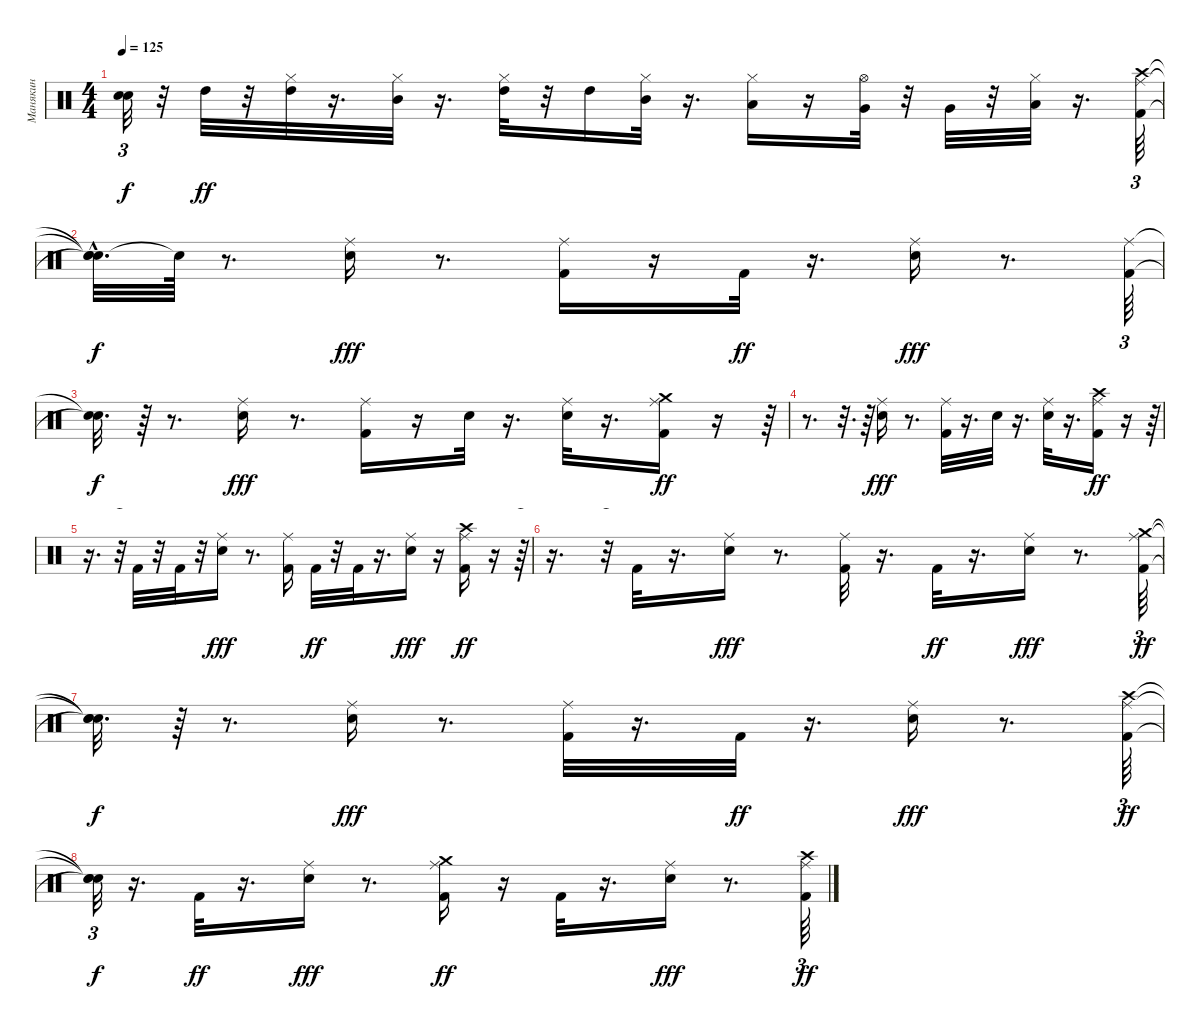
\track ("Манякин" "Манякин") {instrument percussion}
\staff {score}
\articulation defaults
\ts (4 4)
\tempo 125
\clef neutral
\ks c
("Snare (hit)"{t} "Snare (hit)"{t}).32{tu (3 2) dy f} r.32 "High Tom (hit)".32{dy ff} r.32 ("Hi-Hat (closed)" "High Tom (hit)").32 r.16{d} ("Hi-Hat (closed)" "Mid Tom (hit)").32 r.16{d} ("Hi-Hat (closed)" "High Tom (hit)").32 r.32 "High Tom (hit)".16 ("Hi-Hat (closed)" "Mid Tom (hit)").32 r.16{d} ("Hi-Hat (closed)" "Low Tom (hit)").16 r.16 ("Hi-Hat (open)" "Very Low Tom (hit)").32 r.32 "Very Low Tom (hit)".32 r.32 ("Hi-Hat (closed)" "Low Floor Tom (hit)").32 r.16{d} ("Kick (hit) 2" "Ride (middle)" "Crash high (hit)").64{tu (3 2)} |
("Snare (hit)"{t} "Snare (hit)"{hac t} "Snare (hit)"{t}).32{d dy f} "Snare (hit)"{t}.64 r.8{d} ("Snare (hit) 2" "Ride (middle)").16{dy fff} r.8{d} ("Kick (hit) 2" "Ride (middle)").16 r.16 "Kick (hit) 2".32{dy ff} r.16{d} ("Snare (hit) 2" "Ride (middle)").16{dy fff} r.8{d} ("Kick (hit) 2" "Ride (middle)").64{tu (3 2)} |
("Snare (hit)"{t} "Snare (hit)"{t}).32{d dy f} r.64 r.8{d} ("Snare (hit) 2" "Ride (middle)").16{dy fff} r.8{d} ("Kick (hit) 2" "Ride (middle)").16 r.16 "Snare (hit) 2".32 r.16{d} ("Snare (hit) 2" "Ride (middle)").32 r.16{d} ("Kick (hit) 2" "Ride (middle)" "Crash medium (hit)").16{dy ff} r.16 r.64{tu (3 2)} |
r.8{d} r.32{d} r.64 ("Snare (hit) 2" "Ride (middle)").16{dy fff} r.8{d} ("Kick (hit) 2" "Ride (middle)").32 r.16{d} "Snare (hit) 2".32 r.16{d} ("Snare (hit) 2" "Ride (middle)").32 r.16{d} ("Kick (hit) 2" "Ride (middle)" "Crash high (hit)").16{dy ff} r.16 r.64{tu (3 2)} |
r.16{d} r.32{tu (3 2)} "Kick (hit) 2".32 r.32 "Kick (hit) 2".32 r.32 ("Snare (hit) 2" "Ride (middle)").16{dy fff} r.8{d} ("Kick (hit) 2" "Ride (middle)").16 "Kick (hit) 2".32{dy ff} r.32 "Kick (hit) 2".32 r.16{d} ("Snare (hit) 2" "Ride (middle)").16{dy fff} r.16 ("Kick (hit) 2" "Ride (middle)" "Crash high (hit)").16{dy ff} r.16 r.64{tu (3 2)} |
r.16{d} r.32{tu (3 2)} "Kick (hit) 2".32 r.16{d} ("Snare (hit) 2" "Ride (middle)").16{dy fff} r.8{d} ("Kick (hit) 2" "Ride (middle)").32 r.16{d} "Kick (hit) 2".32{dy ff} r.16{d} ("Snare (hit) 2" "Ride (middle)").16{dy fff} r.8{d} ("Kick (hit) 2" "Ride (middle)" "Crash medium (hit)").64{tu (3 2) dy ff} |
("Snare (hit)"{t} "Snare (hit)"{t} "Snare (hit)"{t}).32{d dy f} r.64 r.8{d} ("Snare (hit) 2" "Ride (middle)").16{dy fff} r.8{d} ("Kick (hit) 2" "Ride (middle)").32 r.16{d} "Kick (hit) 2".32{dy ff} r.16{d} ("Snare (hit) 2" "Ride (middle)").16{dy fff} r.8{d} ("Kick (hit) 2" "Ride (middle)" "Crash high (hit)").64{tu (3 2) dy ff} |
("Snare (hit)"{t} "Snare (hit)"{t} "Snare (hit)"{t}).32{tu (3 2) dy f} r.16{d} "Kick (hit) 2".32{dy ff} r.16{d} ("Snare (hit) 2" "Ride (middle)").16{dy fff} r.8{d} ("Kick (hit) 2" "Ride (middle)" "Crash medium (hit)").16{dy ff} r.16 "Kick (hit) 2".32 r.16{d} ("Snare (hit) 2" "Ride (middle)").16{dy fff} r.8{d} ("Kick (hit) 2" "Ride (middle)" "Crash high (hit)").64{tu (3 2) dy ff}
